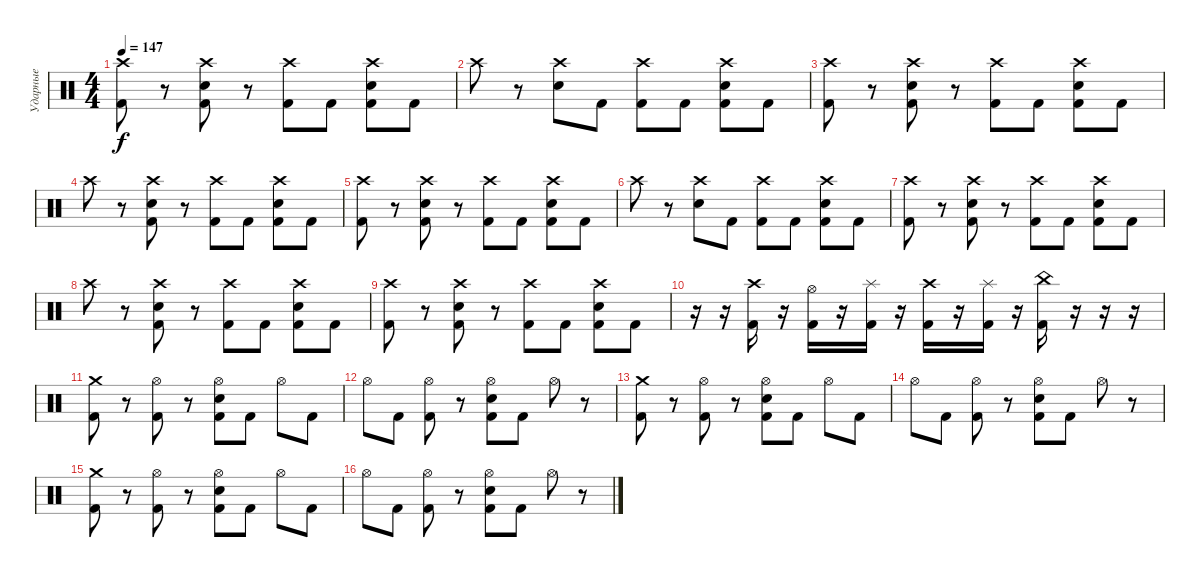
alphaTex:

\track ("Ударные" "Ударные") {instrument percussion}
\staff {score}
\articulation defaults
\ts (4 4)
\tempo 147
\clef neutral
\ks c
("Crash high (hit)" "Kick (hit) 2").8{dy f} r.8 ("Crash high (hit)" "Electric Snare (hit)" "Kick (hit) 2").8 r.8 ("Crash high (hit)" "Kick (hit) 2").8 "Kick (hit) 2".8 ("Crash high (hit)" "Electric Snare (hit)" "Kick (hit) 2").8 "Kick (hit) 2".8 |
"Crash high (hit)".8 r.8 ("Crash high (hit)" "Electric Snare (hit)").8 "Kick (hit) 2".8 ("Crash high (hit)" "Kick (hit) 2").8 "Kick (hit) 2".8 ("Crash high (hit)" "Electric Snare (hit)" "Kick (hit) 2").8 "Kick (hit) 2".8 |
("Crash high (hit)" "Kick (hit) 2").8 r.8 ("Crash high (hit)" "Electric Snare (hit)" "Kick (hit) 2").8 r.8 ("Crash high (hit)" "Kick (hit) 2").8 "Kick (hit) 2".8 ("Crash high (hit)" "Electric Snare (hit)" "Kick (hit) 2").8 "Kick (hit) 2".8 |
"Crash high (hit)".8 r.8 ("Crash high (hit)" "Electric Snare (hit)" "Kick (hit) 2").8 r.8 ("Crash high (hit)" "Kick (hit) 2").8 "Kick (hit) 2".8 ("Crash high (hit)" "Electric Snare (hit)" "Kick (hit) 2").8 "Kick (hit) 2".8 |
("Crash high (hit)" "Kick (hit) 2").8 r.8 ("Crash high (hit)" "Electric Snare (hit)" "Kick (hit) 2").8 r.8 ("Crash high (hit)" "Kick (hit) 2").8 "Kick (hit) 2".8 ("Crash high (hit)" "Electric Snare (hit)" "Kick (hit) 2").8 "Kick (hit) 2".8 |
"Crash high (hit)".8 r.8 ("Crash high (hit)" "Electric Snare (hit)").8 "Kick (hit) 2".8 ("Crash high (hit)" "Kick (hit) 2").8 "Kick (hit) 2".8 ("Crash high (hit)" "Electric Snare (hit)" "Kick (hit) 2").8 "Kick (hit) 2".8 |
("Crash high (hit)" "Kick (hit) 2").8 r.8 ("Crash high (hit)" "Electric Snare (hit)" "Kick (hit) 2").8 r.8 ("Crash high (hit)" "Kick (hit) 2").8 "Kick (hit) 2".8 ("Crash high (hit)" "Electric Snare (hit)" "Kick (hit) 2").8 "Kick (hit) 2".8 |
"Crash high (hit)".8 r.8 ("Crash high (hit)" "Electric Snare (hit)" "Kick (hit) 2").8 r.8 ("Crash high (hit)" "Kick (hit) 2").8 "Kick (hit) 2".8 ("Crash high (hit)" "Electric Snare (hit)" "Kick (hit) 2").8 "Kick (hit) 2".8 |
("Crash high (hit)" "Kick (hit) 2").8 r.8 ("Crash high (hit)" "Electric Snare (hit)" "Kick (hit) 2").8 r.8 ("Crash high (hit)" "Kick (hit) 2").8 "Kick (hit) 2".8 ("Crash high (hit)" "Electric Snare (hit)" "Kick (hit) 2").8 "Kick (hit) 2".8 |
r.16 r.16 ("Crash high (hit)" "Kick (hit) 2").16 r.16 ("Hi-Hat (open)" "Kick (hit) 2").16 r.16 ("Splash (hit)" "Kick (hit) 2").16 r.16 ("Crash high (hit)" "Kick (hit) 2").16 r.16 ("Splash (hit)" "Kick (hit) 2").16 r.16 ("China (hit)" "Kick (hit) 2").16 r.16 r.16 r.16 |
("Crash medium (hit)" "Kick (hit) 2").8 r.8 ("Hi-Hat (open)" "Kick (hit) 2").8 r.8 ("Hi-Hat (open)" "Electric Snare (hit)" "Kick (hit) 2").8 "Kick (hit) 2".8 "Hi-Hat (open)".8 "Kick (hit) 2".8 |
"Hi-Hat (open)".8 "Kick (hit) 2".8 ("Hi-Hat (open)" "Kick (hit) 2").8 r.8 ("Hi-Hat (open)" "Electric Snare (hit)" "Kick (hit) 2").8 "Kick (hit) 2".8 "Hi-Hat (open)".8 r.8 |
("Crash medium (hit)" "Kick (hit) 2").8 r.8 ("Hi-Hat (open)" "Kick (hit) 2").8 r.8 ("Hi-Hat (open)" "Electric Snare (hit)" "Kick (hit) 2").8 "Kick (hit) 2".8 "Hi-Hat (open)".8 "Kick (hit) 2".8 |
"Hi-Hat (open)".8 "Kick (hit) 2".8 ("Hi-Hat (open)" "Kick (hit) 2").8 r.8 ("Hi-Hat (open)" "Electric Snare (hit)" "Kick (hit) 2").8 "Kick (hit) 2".8 "Hi-Hat (open)".8 r.8 |
("Crash medium (hit)" "Kick (hit) 2").8 r.8 ("Hi-Hat (open)" "Kick (hit) 2").8 r.8 ("Hi-Hat (open)" "Electric Snare (hit)" "Kick (hit) 2").8 "Kick (hit) 2".8 "Hi-Hat (open)".8 "Kick (hit) 2".8 |
"Hi-Hat (open)".8 "Kick (hit) 2".8 ("Hi-Hat (open)" "Kick (hit) 2").8 r.8 ("Hi-Hat (open)" "Electric Snare (hit)" "Kick (hit) 2").8 "Kick (hit) 2".8 "Hi-Hat (open)".8 r.8
